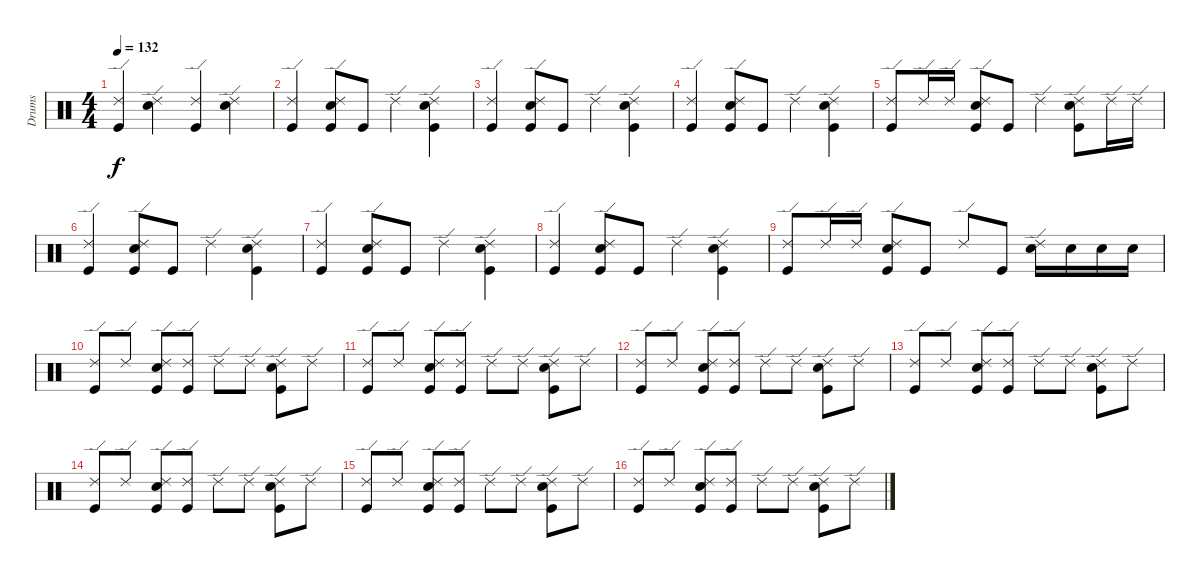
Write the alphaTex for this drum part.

\track ("Drums" "Drums") {instrument percussion}
\staff {score}
\articulation defaults
\ts (4 4)
\tempo 132
\clef neutral
\ks c
("Ride (edge) 2" "Kick (hit)").4{dy f} ("Ride (edge) 2" "Snare (hit) 2").4 ("Ride (edge) 2" "Kick (hit)").4 ("Ride (edge) 2" "Snare (hit) 2").4 |
("Ride (edge) 2" "Kick (hit)").4 ("Ride (edge) 2" "Snare (hit) 2" "Kick (hit)").8 "Kick (hit)".8 "Ride (edge) 2".4 ("Ride (edge) 2" "Snare (hit) 2" "Kick (hit)").4 |
("Ride (edge) 2" "Kick (hit)").4 ("Ride (edge) 2" "Snare (hit) 2" "Kick (hit)").8 "Kick (hit)".8 "Ride (edge) 2".4 ("Ride (edge) 2" "Snare (hit) 2" "Kick (hit)").4 |
("Ride (edge) 2" "Kick (hit)").4 ("Ride (edge) 2" "Snare (hit) 2" "Kick (hit)").8 "Kick (hit)".8 "Ride (edge) 2".4 ("Ride (edge) 2" "Snare (hit) 2" "Kick (hit)").4 |
("Ride (edge) 2" "Kick (hit)").8 "Ride (edge) 2".16 "Ride (edge) 2".16 ("Ride (edge) 2" "Snare (hit) 2" "Kick (hit)").8 "Kick (hit)".8 "Ride (edge) 2".4 ("Ride (edge) 2" "Snare (hit) 2" "Kick (hit)").8 "Ride (edge) 2".16 "Ride (edge) 2".16 |
("Ride (edge) 2" "Kick (hit)").4 ("Ride (edge) 2" "Snare (hit) 2" "Kick (hit)").8 "Kick (hit)".8 "Ride (edge) 2".4 ("Ride (edge) 2" "Snare (hit) 2" "Kick (hit)").4 |
("Ride (edge) 2" "Kick (hit)").4 ("Ride (edge) 2" "Snare (hit) 2" "Kick (hit)").8 "Kick (hit)".8 "Ride (edge) 2".4 ("Ride (edge) 2" "Snare (hit) 2" "Kick (hit)").4 |
("Ride (edge) 2" "Kick (hit)").4 ("Ride (edge) 2" "Snare (hit) 2" "Kick (hit)").8 "Kick (hit)".8 "Ride (edge) 2".4 ("Ride (edge) 2" "Snare (hit) 2" "Kick (hit)").4 |
("Ride (edge) 2" "Kick (hit)").8 "Ride (edge) 2".16 "Ride (edge) 2".16 ("Ride (edge) 2" "Snare (hit) 2" "Kick (hit)").8 "Kick (hit)".8 "Ride (edge) 2".8 "Kick (hit)".8 ("Ride (edge) 2" "Snare (hit) 2").16 "Snare (hit) 2".16 "Snare (hit) 2".16 "Snare (hit) 2".16 |
("Ride (edge) 2" "Kick (hit)").8 "Ride (edge) 2".8 ("Ride (edge) 2" "Snare (hit) 2" "Kick (hit)").8 ("Ride (edge) 2" "Kick (hit)").8 "Ride (edge) 2".8 "Ride (edge) 2".8 ("Ride (edge) 2" "Snare (hit) 2" "Kick (hit)").8 "Ride (edge) 2".8 |
("Ride (edge) 2" "Kick (hit)").8 "Ride (edge) 2".8 ("Ride (edge) 2" "Snare (hit) 2" "Kick (hit)").8 ("Ride (edge) 2" "Kick (hit)").8 "Ride (edge) 2".8 "Ride (edge) 2".8 ("Ride (edge) 2" "Snare (hit) 2" "Kick (hit)").8 "Ride (edge) 2".8 |
("Ride (edge) 2" "Kick (hit)").8 "Ride (edge) 2".8 ("Ride (edge) 2" "Snare (hit) 2" "Kick (hit)").8 ("Ride (edge) 2" "Kick (hit)").8 "Ride (edge) 2".8 "Ride (edge) 2".8 ("Ride (edge) 2" "Snare (hit) 2" "Kick (hit)").8 "Ride (edge) 2".8 |
("Ride (edge) 2" "Kick (hit)").8 "Ride (edge) 2".8 ("Ride (edge) 2" "Snare (hit) 2" "Kick (hit)").8 ("Ride (edge) 2" "Kick (hit)").8 "Ride (edge) 2".8 "Ride (edge) 2".8 ("Ride (edge) 2" "Snare (hit) 2" "Kick (hit)").8 "Ride (edge) 2".8 |
("Ride (edge) 2" "Kick (hit)").8 "Ride (edge) 2".8 ("Ride (edge) 2" "Snare (hit) 2" "Kick (hit)").8 ("Ride (edge) 2" "Kick (hit)").8 "Ride (edge) 2".8 "Ride (edge) 2".8 ("Ride (edge) 2" "Snare (hit) 2" "Kick (hit)").8 "Ride (edge) 2".8 |
("Ride (edge) 2" "Kick (hit)").8 "Ride (edge) 2".8 ("Ride (edge) 2" "Snare (hit) 2" "Kick (hit)").8 ("Ride (edge) 2" "Kick (hit)").8 "Ride (edge) 2".8 "Ride (edge) 2".8 ("Ride (edge) 2" "Snare (hit) 2" "Kick (hit)").8 "Ride (edge) 2".8 |
("Ride (edge) 2" "Kick (hit)").8 "Ride (edge) 2".8 ("Ride (edge) 2" "Snare (hit) 2" "Kick (hit)").8 ("Ride (edge) 2" "Kick (hit)").8 "Ride (edge) 2".8 "Ride (edge) 2".8 ("Ride (edge) 2" "Snare (hit) 2" "Kick (hit)").8 "Ride (edge) 2".8
